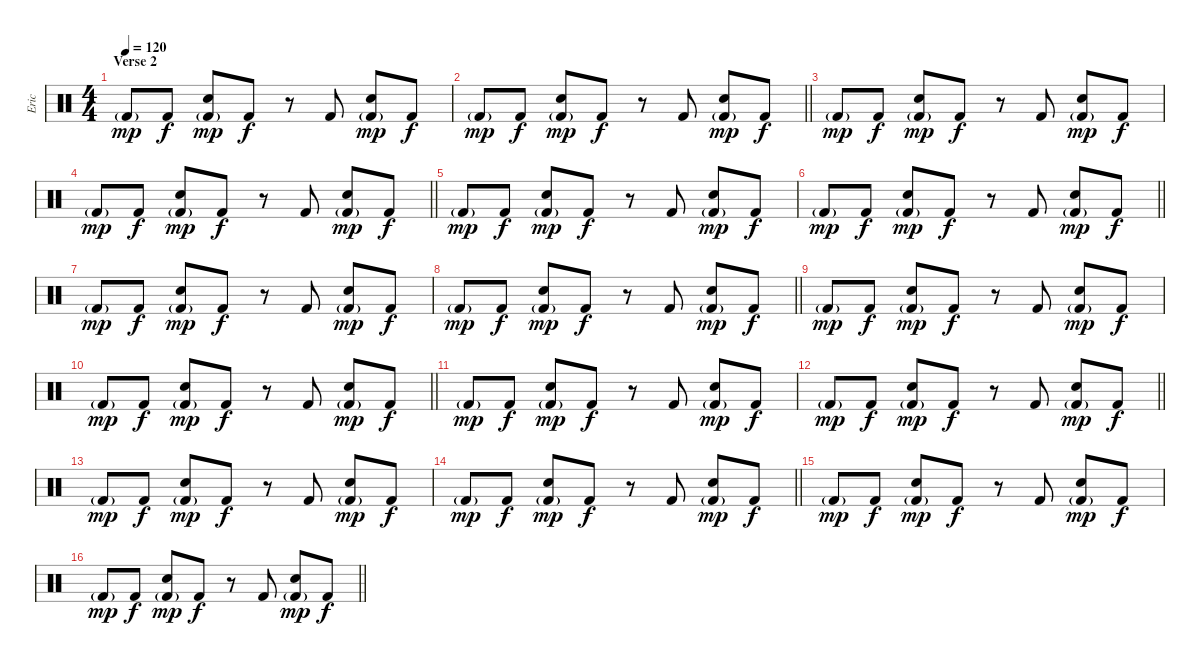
\track ("Eric" "Eric") {instrument percussion}
\staff {score}
\articulation defaults
\ts (4 4)
\section ("" "Verse 2")
\tempo 120
\clef neutral
\ks c "Kick (hit) 2"{g}.8{dy mp} "Kick (hit) 2".8{dy f}
("Snare (hit) 2" "Kick (hit) 2"{g}).8{dy mp} "Kick (hit) 2".8{dy f} r.8 "Kick (hit) 2".8 ("Snare (hit) 2" "Kick (hit) 2"{g}).8{dy mp} "Kick (hit) 2".8{dy f} |
\barLineRight lightlight "Kick (hit) 2"{g}.8{dy mp} "Kick (hit) 2".8{dy f}
("Snare (hit) 2" "Kick (hit) 2"{g}).8{dy mp} "Kick (hit) 2".8{dy f} r.8 "Kick (hit) 2".8 ("Snare (hit) 2" "Kick (hit) 2"{g}).8{dy mp} "Kick (hit) 2".8{dy f} |
"Kick (hit) 2"{g}.8{dy mp} "Kick (hit) 2".8{dy f} ("Snare (hit) 2" "Kick (hit) 2"{g}).8{dy mp} "Kick (hit) 2".8{dy f} r.8 "Kick (hit) 2".8 ("Snare (hit) 2" "Kick (hit) 2"{g}).8{dy mp} "Kick (hit) 2".8{dy f} |
\barLineRight lightlight "Kick (hit) 2"{g}.8{dy mp} "Kick (hit) 2".8{dy f}
("Snare (hit) 2" "Kick (hit) 2"{g}).8{dy mp} "Kick (hit) 2".8{dy f} r.8 "Kick (hit) 2".8 ("Snare (hit) 2" "Kick (hit) 2"{g}).8{dy mp} "Kick (hit) 2".8{dy f} |
"Kick (hit) 2"{g}.8{dy mp} "Kick (hit) 2".8{dy f} ("Snare (hit) 2" "Kick (hit) 2"{g}).8{dy mp} "Kick (hit) 2".8{dy f} r.8 "Kick (hit) 2".8 ("Snare (hit) 2" "Kick (hit) 2"{g}).8{dy mp} "Kick (hit) 2".8{dy f} |
\barLineRight lightlight "Kick (hit) 2"{g}.8{dy mp} "Kick (hit) 2".8{dy f}
("Snare (hit) 2" "Kick (hit) 2"{g}).8{dy mp} "Kick (hit) 2".8{dy f} r.8 "Kick (hit) 2".8 ("Snare (hit) 2" "Kick (hit) 2"{g}).8{dy mp} "Kick (hit) 2".8{dy f} |
"Kick (hit) 2"{g}.8{dy mp} "Kick (hit) 2".8{dy f} ("Snare (hit) 2" "Kick (hit) 2"{g}).8{dy mp} "Kick (hit) 2".8{dy f} r.8 "Kick (hit) 2".8 ("Snare (hit) 2" "Kick (hit) 2"{g}).8{dy mp} "Kick (hit) 2".8{dy f} |
\barLineRight lightlight "Kick (hit) 2"{g}.8{dy mp} "Kick (hit) 2".8{dy f}
("Snare (hit) 2" "Kick (hit) 2"{g}).8{dy mp} "Kick (hit) 2".8{dy f} r.8 "Kick (hit) 2".8 ("Snare (hit) 2" "Kick (hit) 2"{g}).8{dy mp} "Kick (hit) 2".8{dy f} |
"Kick (hit) 2"{g}.8{dy mp} "Kick (hit) 2".8{dy f} ("Snare (hit) 2" "Kick (hit) 2"{g}).8{dy mp} "Kick (hit) 2".8{dy f} r.8 "Kick (hit) 2".8 ("Snare (hit) 2" "Kick (hit) 2"{g}).8{dy mp} "Kick (hit) 2".8{dy f} |
\barLineRight lightlight "Kick (hit) 2"{g}.8{dy mp} "Kick (hit) 2".8{dy f}
("Snare (hit) 2" "Kick (hit) 2"{g}).8{dy mp} "Kick (hit) 2".8{dy f} r.8 "Kick (hit) 2".8 ("Snare (hit) 2" "Kick (hit) 2"{g}).8{dy mp} "Kick (hit) 2".8{dy f} |
"Kick (hit) 2"{g}.8{dy mp} "Kick (hit) 2".8{dy f} ("Snare (hit) 2" "Kick (hit) 2"{g}).8{dy mp} "Kick (hit) 2".8{dy f} r.8 "Kick (hit) 2".8 ("Snare (hit) 2" "Kick (hit) 2"{g}).8{dy mp} "Kick (hit) 2".8{dy f} |
\barLineRight lightlight "Kick (hit) 2"{g}.8{dy mp} "Kick (hit) 2".8{dy f}
("Snare (hit) 2" "Kick (hit) 2"{g}).8{dy mp} "Kick (hit) 2".8{dy f} r.8 "Kick (hit) 2".8 ("Snare (hit) 2" "Kick (hit) 2"{g}).8{dy mp} "Kick (hit) 2".8{dy f} |
"Kick (hit) 2"{g}.8{dy mp} "Kick (hit) 2".8{dy f} ("Snare (hit) 2" "Kick (hit) 2"{g}).8{dy mp} "Kick (hit) 2".8{dy f} r.8 "Kick (hit) 2".8 ("Snare (hit) 2" "Kick (hit) 2"{g}).8{dy mp} "Kick (hit) 2".8{dy f} |
\barLineRight lightlight "Kick (hit) 2"{g}.8{dy mp} "Kick (hit) 2".8{dy f}
("Snare (hit) 2" "Kick (hit) 2"{g}).8{dy mp} "Kick (hit) 2".8{dy f} r.8 "Kick (hit) 2".8 ("Snare (hit) 2" "Kick (hit) 2"{g}).8{dy mp} "Kick (hit) 2".8{dy f} |
"Kick (hit) 2"{g}.8{dy mp} "Kick (hit) 2".8{dy f} ("Snare (hit) 2" "Kick (hit) 2"{g}).8{dy mp} "Kick (hit) 2".8{dy f} r.8 "Kick (hit) 2".8 ("Snare (hit) 2" "Kick (hit) 2"{g}).8{dy mp} "Kick (hit) 2".8{dy f} |
\barLineRight lightlight "Kick (hit) 2"{g}.8{dy mp} "Kick (hit) 2".8{dy f}
("Snare (hit) 2" "Kick (hit) 2"{g}).8{dy mp} "Kick (hit) 2".8{dy f} r.8 "Kick (hit) 2".8 ("Snare (hit) 2" "Kick (hit) 2"{g}).8{dy mp} "Kick (hit) 2".8{dy f}
